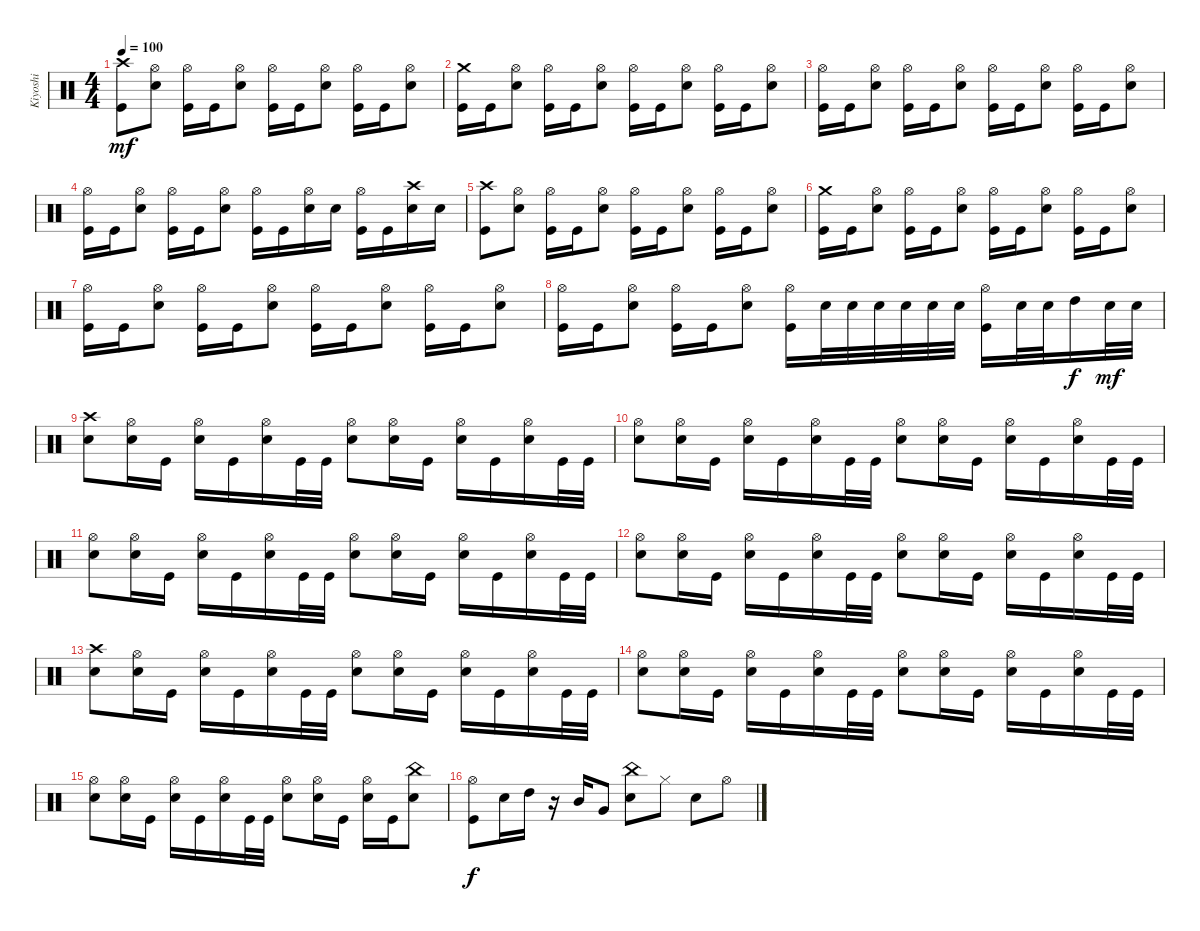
\track ("Kiyoshi" "Kiyoshi") {instrument percussion}
\staff {score}
\articulation defaults
\ts (4 4)
\tempo 100
\clef neutral
\ks c
("Crash high (hit)" "Kick (hit)").8{dy mf} ("Hi-Hat (open)" "Electric Snare (hit)").8 ("Kick (hit)" "Hi-Hat (open)").16 "Kick (hit)".16 ("Hi-Hat (open)" "Electric Snare (hit)").8 ("Kick (hit)" "Hi-Hat (open)").16 "Kick (hit)".16 ("Hi-Hat (open)" "Electric Snare (hit)").8 ("Kick (hit)" "Hi-Hat (open)").16 "Kick (hit)".16 ("Hi-Hat (open)" "Electric Snare (hit)").8 |
("Crash medium (hit)" "Kick (hit)").16 "Kick (hit)".16 ("Hi-Hat (open)" "Electric Snare (hit)").8 ("Kick (hit)" "Hi-Hat (open)").16 "Kick (hit)".16 ("Hi-Hat (open)" "Electric Snare (hit)").8 ("Kick (hit)" "Hi-Hat (open)").16 "Kick (hit)".16 ("Hi-Hat (open)" "Electric Snare (hit)").8 ("Kick (hit)" "Hi-Hat (open)").16 "Kick (hit)".16 ("Hi-Hat (open)" "Electric Snare (hit)").8 |
("Kick (hit)" "Hi-Hat (open)").16 "Kick (hit)".16 ("Hi-Hat (open)" "Electric Snare (hit)").8 ("Kick (hit)" "Hi-Hat (open)").16 "Kick (hit)".16 ("Hi-Hat (open)" "Electric Snare (hit)").8 ("Kick (hit)" "Hi-Hat (open)").16 "Kick (hit)".16 ("Hi-Hat (open)" "Electric Snare (hit)").8 ("Kick (hit)" "Hi-Hat (open)").16 "Kick (hit)".16 ("Hi-Hat (open)" "Electric Snare (hit)").8 |
("Kick (hit)" "Hi-Hat (open)").16 "Kick (hit)".16 ("Hi-Hat (open)" "Electric Snare (hit)").8 ("Kick (hit)" "Hi-Hat (open)").16 "Kick (hit)".16 ("Hi-Hat (open)" "Electric Snare (hit)").8 ("Kick (hit)" "Hi-Hat (open)").16 "Kick (hit)".16 ("Hi-Hat (open)" "Electric Snare (hit)").16 "Electric Snare (hit)".16 ("Kick (hit)" "Hi-Hat (open)").16 "Kick (hit)".16 ("Crash high (hit)" "Electric Snare (hit)").16 "Electric Snare (hit)".16 |
("Crash high (hit)" "Kick (hit)").8 ("Hi-Hat (open)" "Electric Snare (hit)").8 ("Kick (hit)" "Hi-Hat (open)").16 "Kick (hit)".16 ("Hi-Hat (open)" "Electric Snare (hit)").8 ("Kick (hit)" "Hi-Hat (open)").16 "Kick (hit)".16 ("Hi-Hat (open)" "Electric Snare (hit)").8 ("Kick (hit)" "Hi-Hat (open)").16 "Kick (hit)".16 ("Hi-Hat (open)" "Electric Snare (hit)").8 |
("Crash medium (hit)" "Kick (hit)").16 "Kick (hit)".16 ("Hi-Hat (open)" "Electric Snare (hit)").8 ("Kick (hit)" "Hi-Hat (open)").16 "Kick (hit)".16 ("Hi-Hat (open)" "Electric Snare (hit)").8 ("Kick (hit)" "Hi-Hat (open)").16 "Kick (hit)".16 ("Hi-Hat (open)" "Electric Snare (hit)").8 ("Kick (hit)" "Hi-Hat (open)").16 "Kick (hit)".16 ("Hi-Hat (open)" "Electric Snare (hit)").8 |
("Kick (hit)" "Hi-Hat (open)").16 "Kick (hit)".16 ("Hi-Hat (open)" "Electric Snare (hit)").8 ("Kick (hit)" "Hi-Hat (open)").16 "Kick (hit)".16 ("Hi-Hat (open)" "Electric Snare (hit)").8 ("Kick (hit)" "Hi-Hat (open)").16 "Kick (hit)".16 ("Hi-Hat (open)" "Electric Snare (hit)").8 ("Kick (hit)" "Hi-Hat (open)").16 "Kick (hit)".16 ("Hi-Hat (open)" "Electric Snare (hit)").8 |
("Kick (hit)" "Hi-Hat (open)").16 "Kick (hit)".16 ("Hi-Hat (open)" "Electric Snare (hit)").8 ("Kick (hit)" "Hi-Hat (open)").16 "Kick (hit)".16 ("Hi-Hat (open)" "Electric Snare (hit)").8 ("Kick (hit)" "Hi-Hat (open)").16 "Electric Snare (hit)".32 "Electric Snare (hit)".32 "Electric Snare (hit)".32 "Electric Snare (hit)".32 "Electric Snare (hit)".32 "Electric Snare (hit)".32 ("Kick (hit)" "Hi-Hat (open)").16 "Electric Snare (hit)".32 "Electric Snare (hit)".32 "High Tom (hit)".16{dy f} "Electric Snare (hit)".32{dy mf} "Electric Snare (hit)".32 |
("Electric Snare (hit)" "Crash high (hit)").8 ("Electric Snare (hit)" "Hi-Hat (open)").16 "Kick (hit)".16 ("Electric Snare (hit)" "Hi-Hat (open)").16 "Kick (hit)".16 ("Electric Snare (hit)" "Hi-Hat (open)").16 "Kick (hit)".32 "Kick (hit)".32 ("Electric Snare (hit)" "Hi-Hat (open)").8 ("Electric Snare (hit)" "Hi-Hat (open)").16 "Kick (hit)".16 ("Electric Snare (hit)" "Hi-Hat (open)").16 "Kick (hit)".16 ("Electric Snare (hit)" "Hi-Hat (open)").16 "Kick (hit)".32 "Kick (hit)".32 |
("Electric Snare (hit)" "Hi-Hat (open)").8 ("Electric Snare (hit)" "Hi-Hat (open)").16 "Kick (hit)".16 ("Electric Snare (hit)" "Hi-Hat (open)").16 "Kick (hit)".16 ("Electric Snare (hit)" "Hi-Hat (open)").16 "Kick (hit)".32 "Kick (hit)".32 ("Electric Snare (hit)" "Hi-Hat (open)").8 ("Electric Snare (hit)" "Hi-Hat (open)").16 "Kick (hit)".16 ("Electric Snare (hit)" "Hi-Hat (open)").16 "Kick (hit)".16 ("Electric Snare (hit)" "Hi-Hat (open)").16 "Kick (hit)".32 "Kick (hit)".32 |
("Electric Snare (hit)" "Hi-Hat (open)").8 ("Electric Snare (hit)" "Hi-Hat (open)").16 "Kick (hit)".16 ("Electric Snare (hit)" "Hi-Hat (open)").16 "Kick (hit)".16 ("Electric Snare (hit)" "Hi-Hat (open)").16 "Kick (hit)".32 "Kick (hit)".32 ("Electric Snare (hit)" "Hi-Hat (open)").8 ("Electric Snare (hit)" "Hi-Hat (open)").16 "Kick (hit)".16 ("Electric Snare (hit)" "Hi-Hat (open)").16 "Kick (hit)".16 ("Electric Snare (hit)" "Hi-Hat (open)").16 "Kick (hit)".32 "Kick (hit)".32 |
("Electric Snare (hit)" "Hi-Hat (open)").8 ("Electric Snare (hit)" "Hi-Hat (open)").16 "Kick (hit)".16 ("Electric Snare (hit)" "Hi-Hat (open)").16 "Kick (hit)".16 ("Electric Snare (hit)" "Hi-Hat (open)").16 "Kick (hit)".32 "Kick (hit)".32 ("Electric Snare (hit)" "Hi-Hat (open)").8 ("Electric Snare (hit)" "Hi-Hat (open)").16 "Kick (hit)".16 ("Electric Snare (hit)" "Hi-Hat (open)").16 "Kick (hit)".16 ("Electric Snare (hit)" "Hi-Hat (open)").16 "Kick (hit)".32 "Kick (hit)".32 |
("Electric Snare (hit)" "Crash high (hit)").8 ("Electric Snare (hit)" "Hi-Hat (open)").16 "Kick (hit)".16 ("Electric Snare (hit)" "Hi-Hat (open)").16 "Kick (hit)".16 ("Electric Snare (hit)" "Hi-Hat (open)").16 "Kick (hit)".32 "Kick (hit)".32 ("Electric Snare (hit)" "Hi-Hat (open)").8 ("Electric Snare (hit)" "Hi-Hat (open)").16 "Kick (hit)".16 ("Electric Snare (hit)" "Hi-Hat (open)").16 "Kick (hit)".16 ("Electric Snare (hit)" "Hi-Hat (open)").16 "Kick (hit)".32 "Kick (hit)".32 |
("Electric Snare (hit)" "Hi-Hat (open)").8 ("Electric Snare (hit)" "Hi-Hat (open)").16 "Kick (hit)".16 ("Electric Snare (hit)" "Hi-Hat (open)").16 "Kick (hit)".16 ("Electric Snare (hit)" "Hi-Hat (open)").16 "Kick (hit)".32 "Kick (hit)".32 ("Electric Snare (hit)" "Hi-Hat (open)").8 ("Electric Snare (hit)" "Hi-Hat (open)").16 "Kick (hit)".16 ("Electric Snare (hit)" "Hi-Hat (open)").16 "Kick (hit)".16 ("Electric Snare (hit)" "Hi-Hat (open)").16 "Kick (hit)".32 "Kick (hit)".32 |
("Electric Snare (hit)" "Hi-Hat (open)").8 ("Electric Snare (hit)" "Hi-Hat (open)").16 "Kick (hit)".16 ("Electric Snare (hit)" "Hi-Hat (open)").16 "Kick (hit)".16 ("Electric Snare (hit)" "Hi-Hat (open)").16 "Kick (hit)".32 "Kick (hit)".32 ("Electric Snare (hit)" "Hi-Hat (open)").8 ("Electric Snare (hit)" "Hi-Hat (open)").16 "Kick (hit)".16 ("Electric Snare (hit)" "Hi-Hat (open)").16 "Kick (hit)".16 ("Electric Snare (hit)" "China (hit)").8 |
("Kick (hit)" "Hi-Hat (open)").8{dy f} "Electric Snare (hit)".16 "High Tom (hit)".16 r.16 "Mid Tom (hit)".16 "Very Low Tom (hit)".8 ("Electric Snare (hit)" "China (hit)").8 "Hi-Hat (closed)".8 "Electric Snare (hit)".8 "Hi-Hat (open)".8
